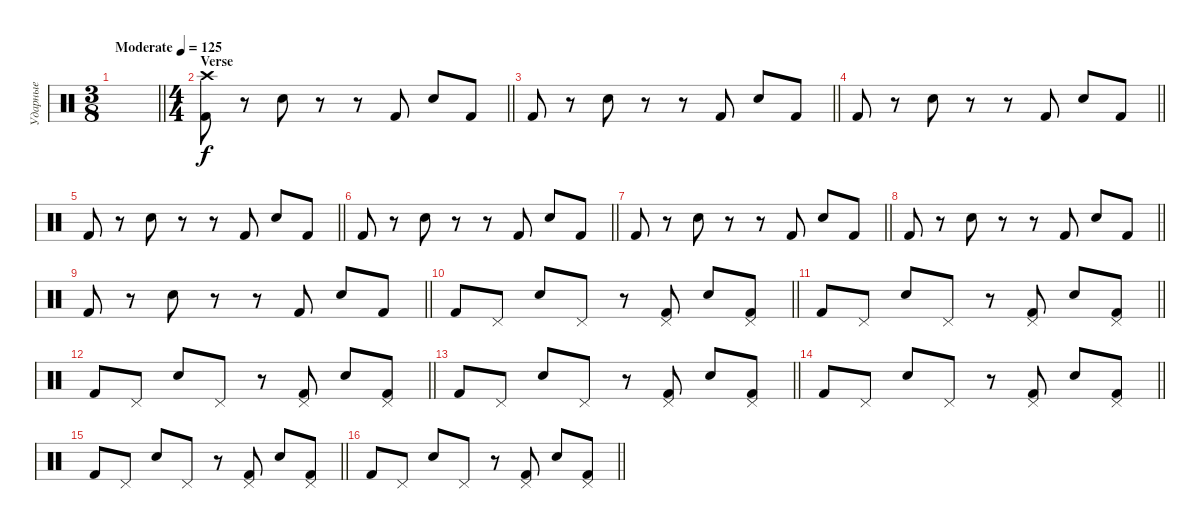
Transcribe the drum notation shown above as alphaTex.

\track ("Ударные" "Ударные") {instrument percussion}
\staff {score}
\articulation defaults
\ts (3 8)
\tempo (125 "Moderate")
\clef neutral
\barLineRight lightlight
\ks c
|
\ts (4 4)
\section ("" "Verse")
\barLineRight lightlight
("Crash high (hit)" "Kick (hit) 2").8 r.8 "Electric Snare (hit)".8 r.8 r.8 "Kick (hit) 2".8 "Electric Snare (hit)".8 "Kick (hit) 2".8 |
\barLineRight lightlight "Kick (hit) 2".8
r.8 "Electric Snare (hit)".8 r.8 r.8 "Kick (hit) 2".8 "Electric Snare (hit)".8 "Kick (hit) 2".8 |
\barLineRight lightlight "Kick (hit) 2".8
r.8 "Electric Snare (hit)".8 r.8 r.8 "Kick (hit) 2".8 "Electric Snare (hit)".8 "Kick (hit) 2".8 |
\barLineRight lightlight "Kick (hit) 2".8
r.8 "Electric Snare (hit)".8 r.8 r.8 "Kick (hit) 2".8 "Electric Snare (hit)".8 "Kick (hit) 2".8 |
\barLineRight lightlight "Kick (hit) 2".8
r.8 "Electric Snare (hit)".8 r.8 r.8 "Kick (hit) 2".8 "Electric Snare (hit)".8 "Kick (hit) 2".8 |
\barLineRight lightlight "Kick (hit) 2".8
r.8 "Electric Snare (hit)".8 r.8 r.8 "Kick (hit) 2".8 "Electric Snare (hit)".8 "Kick (hit) 2".8 |
\barLineRight lightlight "Kick (hit) 2".8
r.8 "Electric Snare (hit)".8 r.8 r.8 "Kick (hit) 2".8 "Electric Snare (hit)".8 "Kick (hit) 2".8 |
\barLineRight lightlight "Kick (hit) 2".8
r.8 "Electric Snare (hit)".8 r.8 r.8 "Kick (hit) 2".8 "Electric Snare (hit)".8 "Kick (hit) 2".8 |
\barLineRight lightlight "Kick (hit) 2".8 "Pedal Hi-Hat (hit)".8 "Electric Snare (hit)".8 "Pedal Hi-Hat (hit)".8
r.8 ("Pedal Hi-Hat (hit)" "Kick (hit) 2").8 "Electric Snare (hit)".8 ("Pedal Hi-Hat (hit)" "Kick (hit) 2").8 |
\barLineRight lightlight "Kick (hit) 2".8 "Pedal Hi-Hat (hit)".8 "Electric Snare (hit)".8 "Pedal Hi-Hat (hit)".8
r.8 ("Pedal Hi-Hat (hit)" "Kick (hit) 2").8 "Electric Snare (hit)".8 ("Pedal Hi-Hat (hit)" "Kick (hit) 2").8 |
\barLineRight lightlight "Kick (hit) 2".8 "Pedal Hi-Hat (hit)".8 "Electric Snare (hit)".8 "Pedal Hi-Hat (hit)".8
r.8 ("Pedal Hi-Hat (hit)" "Kick (hit) 2").8 "Electric Snare (hit)".8 ("Pedal Hi-Hat (hit)" "Kick (hit) 2").8 |
\barLineRight lightlight "Kick (hit) 2".8 "Pedal Hi-Hat (hit)".8 "Electric Snare (hit)".8 "Pedal Hi-Hat (hit)".8
r.8 ("Pedal Hi-Hat (hit)" "Kick (hit) 2").8 "Electric Snare (hit)".8 ("Pedal Hi-Hat (hit)" "Kick (hit) 2").8 |
\barLineRight lightlight "Kick (hit) 2".8 "Pedal Hi-Hat (hit)".8 "Electric Snare (hit)".8 "Pedal Hi-Hat (hit)".8
r.8 ("Pedal Hi-Hat (hit)" "Kick (hit) 2").8 "Electric Snare (hit)".8 ("Pedal Hi-Hat (hit)" "Kick (hit) 2").8 |
\barLineRight lightlight "Kick (hit) 2".8 "Pedal Hi-Hat (hit)".8 "Electric Snare (hit)".8 "Pedal Hi-Hat (hit)".8
r.8 ("Pedal Hi-Hat (hit)" "Kick (hit) 2").8 "Electric Snare (hit)".8 ("Pedal Hi-Hat (hit)" "Kick (hit) 2").8 |
\barLineRight lightlight "Kick (hit) 2".8 "Pedal Hi-Hat (hit)".8 "Electric Snare (hit)".8 "Pedal Hi-Hat (hit)".8
r.8 ("Pedal Hi-Hat (hit)" "Kick (hit) 2").8 "Electric Snare (hit)".8 ("Pedal Hi-Hat (hit)" "Kick (hit) 2").8
